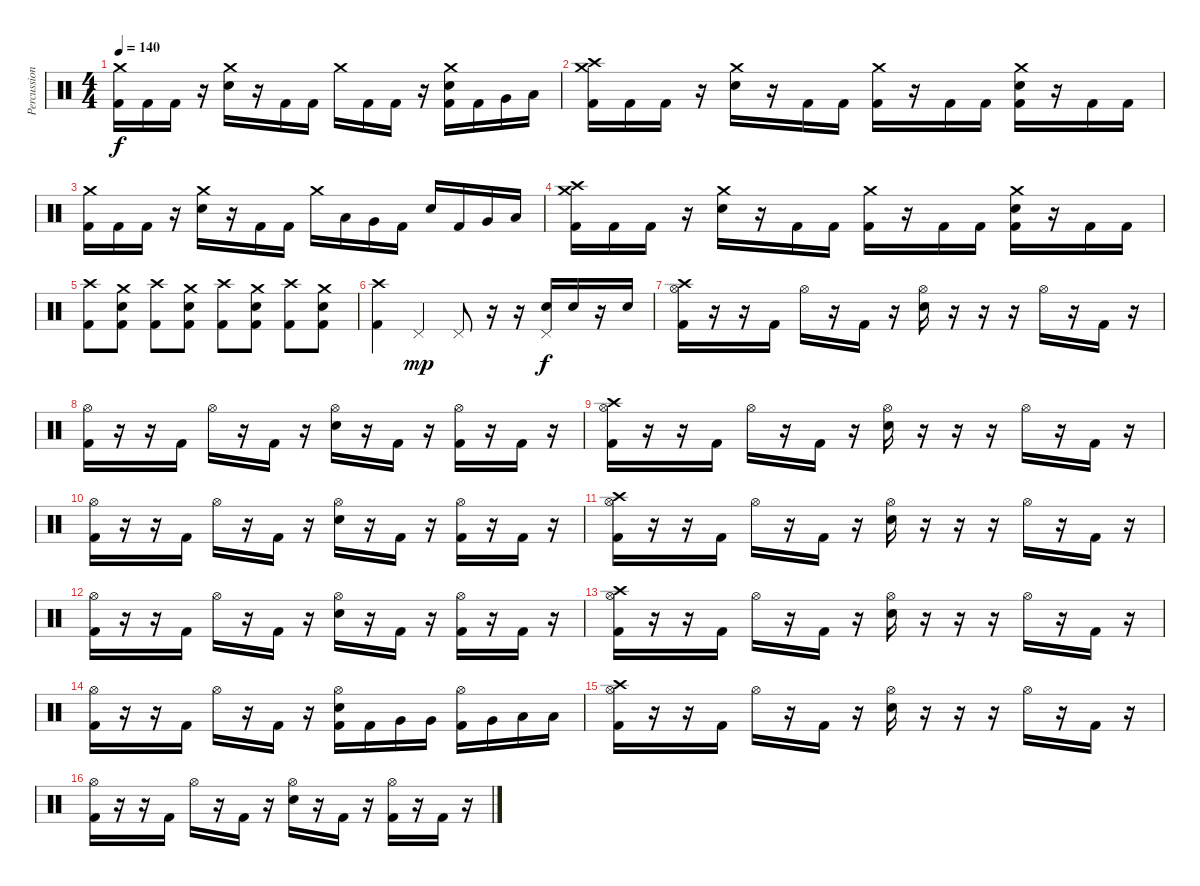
\track ("Percussion" "Percussion") {instrument percussion}
\staff {score}
\articulation defaults
\ts (4 4)
\tempo 140
\clef neutral
\ks c
("Crash medium (hit)" "Kick (hit) 2").16{dy f} "Kick (hit) 2".16 "Kick (hit) 2".16 r.16 ("Crash medium (hit)" "Electric Snare (hit)").16 r.16 "Kick (hit) 2".16 "Kick (hit) 2".16 "Crash medium (hit)".16 "Kick (hit) 2".16 "Kick (hit) 2".16 r.16 ("Crash medium (hit)" "Electric Snare (hit)" "Kick (hit) 2").16 "Kick (hit) 2".16 "Very Low Tom (hit)".16 "Low Floor Tom (hit)".16 |
("Crash high (hit)" "Crash medium (hit)" "Kick (hit) 2").16 "Kick (hit) 2".16 "Kick (hit) 2".16 r.16 ("Crash medium (hit)" "Electric Snare (hit)").16 r.16 "Kick (hit) 2".16 "Kick (hit) 2".16 ("Crash medium (hit)" "Kick (hit) 2").16 r.16 "Kick (hit) 2".16 "Kick (hit) 2".16 ("Crash medium (hit)" "Electric Snare (hit)" "Kick (hit) 2").16 r.16 "Kick (hit) 2".16 "Kick (hit) 2".16 |
("Crash medium (hit)" "Kick (hit) 2").16 "Kick (hit) 2".16 "Kick (hit) 2".16 r.16 ("Crash medium (hit)" "Electric Snare (hit)").16 r.16 "Kick (hit) 2".16 "Kick (hit) 2".16 "Crash medium (hit)".16 "Low Tom (hit)".16 "Very Low Tom (hit)".16 "Kick (hit) 2".16 "Electric Snare (hit)".16 "Kick (hit) 2".16 "Very Low Tom (hit)".16 "Low Floor Tom (hit)".16 |
("Crash high (hit)" "Crash medium (hit)" "Kick (hit) 2").16 "Kick (hit) 2".16 "Kick (hit) 2".16 r.16 ("Crash medium (hit)" "Electric Snare (hit)").16 r.16 "Kick (hit) 2".16 "Kick (hit) 2".16 ("Crash medium (hit)" "Kick (hit) 2").16 r.16 "Kick (hit) 2".16 "Kick (hit) 2".16 ("Crash medium (hit)" "Electric Snare (hit)" "Kick (hit) 2").16 r.16 "Kick (hit) 2".16 "Kick (hit) 2".16 |
("Crash high (hit)" "Kick (hit) 2").8 ("Crash medium (hit)" "Electric Snare (hit)" "Kick (hit) 2").8 ("Crash high (hit)" "Kick (hit) 2").8 ("Crash medium (hit)" "Electric Snare (hit)" "Kick (hit) 2").8 ("Crash high (hit)" "Kick (hit) 2").8 ("Crash medium (hit)" "Electric Snare (hit)" "Kick (hit) 2").8 ("Crash high (hit)" "Kick (hit) 2").8 ("Crash medium (hit)" "Electric Snare (hit)" "Kick (hit) 2").8 |
("Crash high (hit)" "Kick (hit) 2").4 "Pedal Hi-Hat (hit)".4{dy mp} "Pedal Hi-Hat (hit)".8 r.16 r.16 ("Pedal Hi-Hat (hit)" "Electric Snare (hit)").16{dy f} "Electric Snare (hit)".16 r.16 "Electric Snare (hit)".16 |
("Crash high (hit)" "Hi-Hat (open)" "Kick (hit) 2").16 r.16 r.16 "Kick (hit) 2".16 "Hi-Hat (open)".16 r.16 "Kick (hit) 2".16 r.16 ("Hi-Hat (open)" "Electric Snare (hit)").16 r.16 r.16 r.16 "Hi-Hat (open)".16 r.16 "Kick (hit) 2".16 r.16 |
("Hi-Hat (open)" "Kick (hit) 2").16 r.16 r.16 "Kick (hit) 2".16 "Hi-Hat (open)".16 r.16 "Kick (hit) 2".16 r.16 ("Hi-Hat (open)" "Electric Snare (hit)").16 r.16 "Kick (hit) 2".16 r.16 ("Hi-Hat (open)" "Kick (hit) 2").16 r.16 "Kick (hit) 2".16 r.16 |
("Crash high (hit)" "Hi-Hat (open)" "Kick (hit) 2").16 r.16 r.16 "Kick (hit) 2".16 "Hi-Hat (open)".16 r.16 "Kick (hit) 2".16 r.16 ("Hi-Hat (open)" "Electric Snare (hit)").16 r.16 r.16 r.16 "Hi-Hat (open)".16 r.16 "Kick (hit) 2".16 r.16 |
("Hi-Hat (open)" "Kick (hit) 2").16 r.16 r.16 "Kick (hit) 2".16 "Hi-Hat (open)".16 r.16 "Kick (hit) 2".16 r.16 ("Hi-Hat (open)" "Electric Snare (hit)").16 r.16 "Kick (hit) 2".16 r.16 ("Hi-Hat (open)" "Kick (hit) 2").16 r.16 "Kick (hit) 2".16 r.16 |
("Crash high (hit)" "Hi-Hat (open)" "Kick (hit) 2").16 r.16 r.16 "Kick (hit) 2".16 "Hi-Hat (open)".16 r.16 "Kick (hit) 2".16 r.16 ("Hi-Hat (open)" "Electric Snare (hit)").16 r.16 r.16 r.16 "Hi-Hat (open)".16 r.16 "Kick (hit) 2".16 r.16 |
("Hi-Hat (open)" "Kick (hit) 2").16 r.16 r.16 "Kick (hit) 2".16 "Hi-Hat (open)".16 r.16 "Kick (hit) 2".16 r.16 ("Hi-Hat (open)" "Electric Snare (hit)").16 r.16 "Kick (hit) 2".16 r.16 ("Hi-Hat (open)" "Kick (hit) 2").16 r.16 "Kick (hit) 2".16 r.16 |
("Crash high (hit)" "Hi-Hat (open)" "Kick (hit) 2").16 r.16 r.16 "Kick (hit) 2".16 "Hi-Hat (open)".16 r.16 "Kick (hit) 2".16 r.16 ("Hi-Hat (open)" "Electric Snare (hit)").16 r.16 r.16 r.16 "Hi-Hat (open)".16 r.16 "Kick (hit) 2".16 r.16 |
("Hi-Hat (open)" "Kick (hit) 2").16 r.16 r.16 "Kick (hit) 2".16 "Hi-Hat (open)".16 r.16 "Kick (hit) 2".16 r.16 ("Hi-Hat (open)" "Electric Snare (hit)" "Kick (hit) 2").16 "Kick (hit) 2".16 "Very Low Tom (hit)".16 "Very Low Tom (hit)".16 ("Hi-Hat (open)" "Kick (hit) 2").16 "Very Low Tom (hit)".16 "Low Floor Tom (hit)".16 "Low Floor Tom (hit)".16 |
("Crash high (hit)" "Hi-Hat (open)" "Kick (hit) 2").16 r.16 r.16 "Kick (hit) 2".16 "Hi-Hat (open)".16 r.16 "Kick (hit) 2".16 r.16 ("Hi-Hat (open)" "Electric Snare (hit)").16 r.16 r.16 r.16 "Hi-Hat (open)".16 r.16 "Kick (hit) 2".16 r.16 |
("Hi-Hat (open)" "Kick (hit) 2").16 r.16 r.16 "Kick (hit) 2".16 "Hi-Hat (open)".16 r.16 "Kick (hit) 2".16 r.16 ("Hi-Hat (open)" "Electric Snare (hit)").16 r.16 "Kick (hit) 2".16 r.16 ("Hi-Hat (open)" "Kick (hit) 2").16 r.16 "Kick (hit) 2".16 r.16
